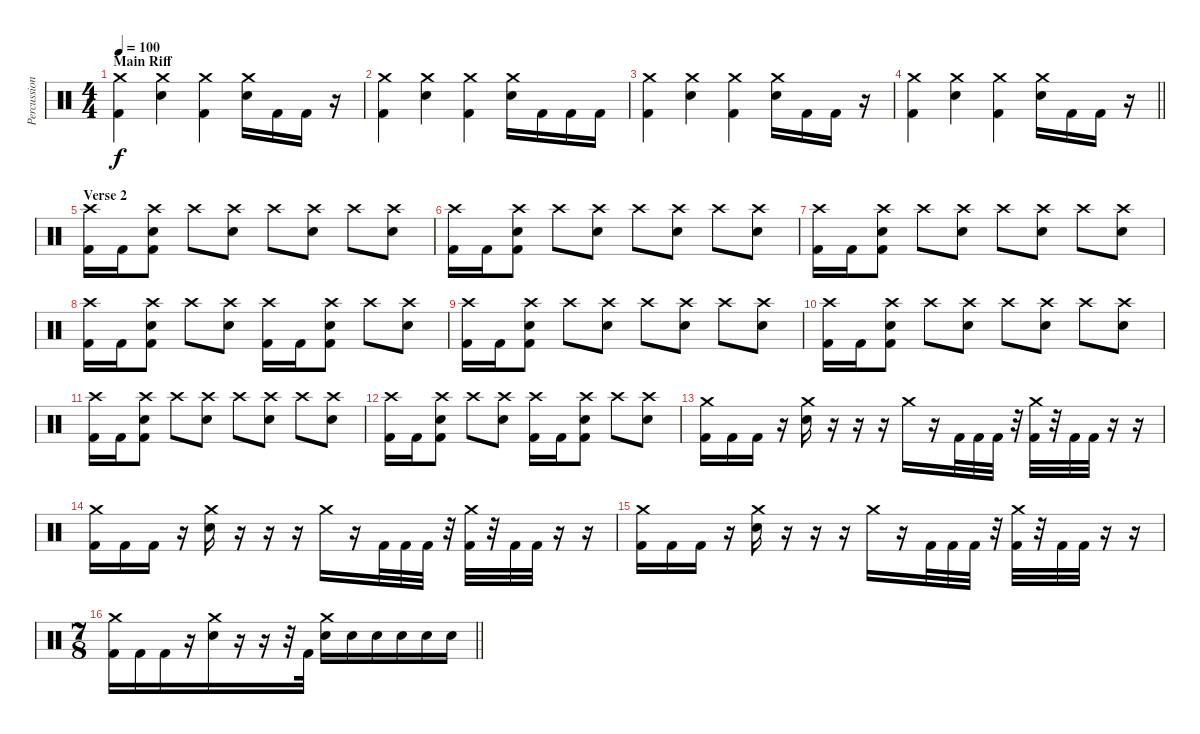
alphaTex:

\track ("Percussion" "Percussion") {instrument percussion}
\staff {score}
\articulation defaults
\ts (4 4)
\section ("" "Main Riff")
\tempo 100
\clef neutral
\ks c
("Crash medium (hit)" "Kick (hit) 2").4{dy f} ("Crash medium (hit)" "Electric Snare (hit)").4 ("Crash medium (hit)" "Kick (hit) 2").4 ("Crash medium (hit)" "Electric Snare (hit)").16 "Kick (hit) 2".16 "Kick (hit) 2".16 r.16 |
("Crash medium (hit)" "Kick (hit) 2").4 ("Crash medium (hit)" "Electric Snare (hit)").4 ("Crash medium (hit)" "Kick (hit) 2").4 ("Crash medium (hit)" "Electric Snare (hit)").16 "Kick (hit) 2".16 "Kick (hit) 2".16 "Kick (hit) 2".16 |
("Crash medium (hit)" "Kick (hit) 2").4 ("Crash medium (hit)" "Electric Snare (hit)").4 ("Crash medium (hit)" "Kick (hit) 2").4 ("Crash medium (hit)" "Electric Snare (hit)").16 "Kick (hit) 2".16 "Kick (hit) 2".16 r.16 |
\barLineRight lightlight
("Crash medium (hit)" "Kick (hit) 2").4 ("Crash medium (hit)" "Electric Snare (hit)").4 ("Crash medium (hit)" "Kick (hit) 2").4 ("Crash medium (hit)" "Electric Snare (hit)").16 "Kick (hit) 2".16 "Kick (hit) 2".16 r.16 |
\section ("" "Verse 2")
("Crash high (hit)" "Kick (hit) 2").16 "Kick (hit) 2".16 ("Crash high (hit)" "Electric Snare (hit)" "Kick (hit) 2").8 "Crash high (hit)".8 ("Crash high (hit)" "Electric Snare (hit)").8 "Crash high (hit)".8 ("Crash high (hit)" "Electric Snare (hit)").8 "Crash high (hit)".8 ("Crash high (hit)" "Electric Snare (hit)").8 |
("Crash high (hit)" "Kick (hit) 2").16 "Kick (hit) 2".16 ("Crash high (hit)" "Electric Snare (hit)" "Kick (hit) 2").8 "Crash high (hit)".8 ("Crash high (hit)" "Electric Snare (hit)").8 "Crash high (hit)".8 ("Crash high (hit)" "Electric Snare (hit)").8 "Crash high (hit)".8 ("Crash high (hit)" "Electric Snare (hit)").8 |
("Crash high (hit)" "Kick (hit) 2").16 "Kick (hit) 2".16 ("Crash high (hit)" "Electric Snare (hit)" "Kick (hit) 2").8 "Crash high (hit)".8 ("Crash high (hit)" "Electric Snare (hit)").8 "Crash high (hit)".8 ("Crash high (hit)" "Electric Snare (hit)").8 "Crash high (hit)".8 ("Crash high (hit)" "Electric Snare (hit)").8 |
("Crash high (hit)" "Kick (hit) 2").16 "Kick (hit) 2".16 ("Crash high (hit)" "Electric Snare (hit)" "Kick (hit) 2").8 "Crash high (hit)".8 ("Crash high (hit)" "Electric Snare (hit)").8 ("Crash high (hit)" "Kick (hit) 2").16 "Kick (hit) 2".16 ("Crash high (hit)" "Electric Snare (hit)" "Kick (hit) 2").8 "Crash high (hit)".8 ("Crash high (hit)" "Electric Snare (hit)").8 |
("Crash high (hit)" "Kick (hit) 2").16 "Kick (hit) 2".16 ("Crash high (hit)" "Electric Snare (hit)" "Kick (hit) 2").8 "Crash high (hit)".8 ("Crash high (hit)" "Electric Snare (hit)").8 "Crash high (hit)".8 ("Crash high (hit)" "Electric Snare (hit)").8 "Crash high (hit)".8 ("Crash high (hit)" "Electric Snare (hit)").8 |
("Crash high (hit)" "Kick (hit) 2").16 "Kick (hit) 2".16 ("Crash high (hit)" "Electric Snare (hit)" "Kick (hit) 2").8 "Crash high (hit)".8 ("Crash high (hit)" "Electric Snare (hit)").8 "Crash high (hit)".8 ("Crash high (hit)" "Electric Snare (hit)").8 "Crash high (hit)".8 ("Crash high (hit)" "Electric Snare (hit)").8 |
("Crash high (hit)" "Kick (hit) 2").16 "Kick (hit) 2".16 ("Crash high (hit)" "Electric Snare (hit)" "Kick (hit) 2").8 "Crash high (hit)".8 ("Crash high (hit)" "Electric Snare (hit)").8 "Crash high (hit)".8 ("Crash high (hit)" "Electric Snare (hit)").8 "Crash high (hit)".8 ("Crash high (hit)" "Electric Snare (hit)").8 |
("Crash high (hit)" "Kick (hit) 2").16 "Kick (hit) 2".16 ("Crash high (hit)" "Electric Snare (hit)" "Kick (hit) 2").8 "Crash high (hit)".8 ("Crash high (hit)" "Electric Snare (hit)").8 ("Crash high (hit)" "Kick (hit) 2").16 "Kick (hit) 2".16 ("Crash high (hit)" "Electric Snare (hit)" "Kick (hit) 2").8 "Crash high (hit)".8 ("Crash high (hit)" "Electric Snare (hit)").8 |
("Crash medium (hit)" "Kick (hit) 2").16 "Kick (hit) 2".16 "Kick (hit) 2".16 r.16 ("Crash medium (hit)" "Electric Snare (hit)").16 r.16 r.16 r.16 "Crash medium (hit)".16 r.16 "Kick (hit) 2".32 "Kick (hit) 2".32 "Kick (hit) 2".32 r.32 ("Crash medium (hit)" "Kick (hit) 2").32 r.32 "Kick (hit) 2".32 "Kick (hit) 2".32 r.16 r.16 |
("Crash medium (hit)" "Kick (hit) 2").16 "Kick (hit) 2".16 "Kick (hit) 2".16 r.16 ("Crash medium (hit)" "Electric Snare (hit)").16 r.16 r.16 r.16 "Crash medium (hit)".16 r.16 "Kick (hit) 2".32 "Kick (hit) 2".32 "Kick (hit) 2".32 r.32 ("Crash medium (hit)" "Kick (hit) 2").32 r.32 "Kick (hit) 2".32 "Kick (hit) 2".32 r.16 r.16 |
("Crash medium (hit)" "Kick (hit) 2").16 "Kick (hit) 2".16 "Kick (hit) 2".16 r.16 ("Crash medium (hit)" "Electric Snare (hit)").16 r.16 r.16 r.16 "Crash medium (hit)".16 r.16 "Kick (hit) 2".32 "Kick (hit) 2".32 "Kick (hit) 2".32 r.32 ("Crash medium (hit)" "Kick (hit) 2").32 r.32 "Kick (hit) 2".32 "Kick (hit) 2".32 r.16 r.16 |
\ts (7 8)
\barLineRight lightlight
("Crash medium (hit)" "Kick (hit) 2").16 "Kick (hit) 2".16 "Kick (hit) 2".16 r.16 ("Crash medium (hit)" "Electric Snare (hit)").16 r.16 r.16 r.32 "Kick (hit) 2".32 ("Crash medium (hit)" "Electric Snare (hit)").16 "Electric Snare (hit)".16 "Electric Snare (hit)".16 "Electric Snare (hit)".16 "Electric Snare (hit)".16 "Electric Snare (hit)".16
